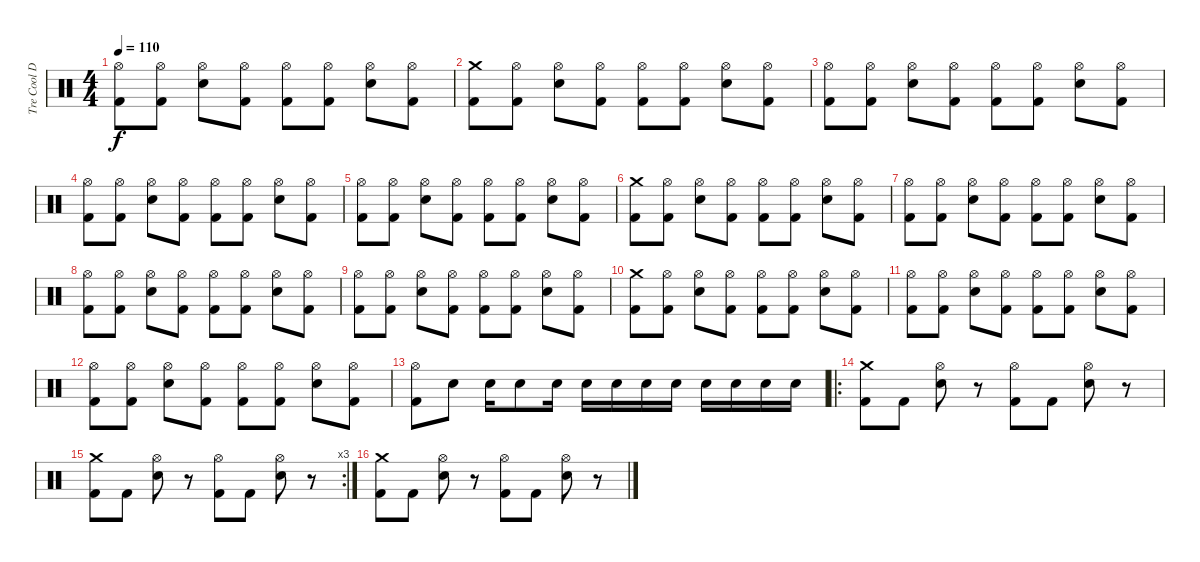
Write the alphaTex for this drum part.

\track ("Tre Cool Drums" "Tre Cool D") {instrument percussion}
\staff {score}
\articulation defaults
\ts (4 4)
\tempo 110
\clef neutral
\ks c
("Hi-Hat (open)" "Kick (hit) 2").8{dy f} ("Hi-Hat (open)" "Kick (hit) 2").8 ("Hi-Hat (open)" "Electric Snare (hit)").8 ("Hi-Hat (open)" "Kick (hit) 2").8 ("Hi-Hat (open)" "Kick (hit) 2").8 ("Hi-Hat (open)" "Kick (hit) 2").8 ("Hi-Hat (open)" "Electric Snare (hit)").8 ("Hi-Hat (open)" "Kick (hit) 2").8 |
("Crash medium (hit)" "Kick (hit) 2").8 ("Hi-Hat (open)" "Kick (hit) 2").8 ("Hi-Hat (open)" "Electric Snare (hit)").8 ("Hi-Hat (open)" "Kick (hit) 2").8 ("Hi-Hat (open)" "Kick (hit) 2").8 ("Hi-Hat (open)" "Kick (hit) 2").8 ("Hi-Hat (open)" "Electric Snare (hit)").8 ("Hi-Hat (open)" "Kick (hit) 2").8 |
("Hi-Hat (open)" "Kick (hit) 2").8 ("Hi-Hat (open)" "Kick (hit) 2").8 ("Hi-Hat (open)" "Electric Snare (hit)").8 ("Hi-Hat (open)" "Kick (hit) 2").8 ("Hi-Hat (open)" "Kick (hit) 2").8 ("Hi-Hat (open)" "Kick (hit) 2").8 ("Hi-Hat (open)" "Electric Snare (hit)").8 ("Hi-Hat (open)" "Kick (hit) 2").8 |
("Hi-Hat (open)" "Kick (hit) 2").8 ("Hi-Hat (open)" "Kick (hit) 2").8 ("Hi-Hat (open)" "Electric Snare (hit)").8 ("Hi-Hat (open)" "Kick (hit) 2").8 ("Hi-Hat (open)" "Kick (hit) 2").8 ("Hi-Hat (open)" "Kick (hit) 2").8 ("Hi-Hat (open)" "Electric Snare (hit)").8 ("Hi-Hat (open)" "Kick (hit) 2").8 |
("Hi-Hat (open)" "Kick (hit) 2").8 ("Hi-Hat (open)" "Kick (hit) 2").8 ("Hi-Hat (open)" "Electric Snare (hit)").8 ("Hi-Hat (open)" "Kick (hit) 2").8 ("Hi-Hat (open)" "Kick (hit) 2").8 ("Hi-Hat (open)" "Kick (hit) 2").8 ("Hi-Hat (open)" "Electric Snare (hit)").8 ("Hi-Hat (open)" "Kick (hit) 2").8 |
("Crash medium (hit)" "Kick (hit) 2").8 ("Hi-Hat (open)" "Kick (hit) 2").8 ("Hi-Hat (open)" "Electric Snare (hit)").8 ("Hi-Hat (open)" "Kick (hit) 2").8 ("Hi-Hat (open)" "Kick (hit) 2").8 ("Hi-Hat (open)" "Kick (hit) 2").8 ("Hi-Hat (open)" "Electric Snare (hit)").8 ("Hi-Hat (open)" "Kick (hit) 2").8 |
("Hi-Hat (open)" "Kick (hit) 2").8 ("Hi-Hat (open)" "Kick (hit) 2").8 ("Hi-Hat (open)" "Electric Snare (hit)").8 ("Hi-Hat (open)" "Kick (hit) 2").8 ("Hi-Hat (open)" "Kick (hit) 2").8 ("Hi-Hat (open)" "Kick (hit) 2").8 ("Hi-Hat (open)" "Electric Snare (hit)").8 ("Hi-Hat (open)" "Kick (hit) 2").8 |
("Hi-Hat (open)" "Kick (hit) 2").8 ("Hi-Hat (open)" "Kick (hit) 2").8 ("Hi-Hat (open)" "Electric Snare (hit)").8 ("Hi-Hat (open)" "Kick (hit) 2").8 ("Hi-Hat (open)" "Kick (hit) 2").8 ("Hi-Hat (open)" "Kick (hit) 2").8 ("Hi-Hat (open)" "Electric Snare (hit)").8 ("Hi-Hat (open)" "Kick (hit) 2").8 |
("Hi-Hat (open)" "Kick (hit) 2").8 ("Hi-Hat (open)" "Kick (hit) 2").8 ("Hi-Hat (open)" "Electric Snare (hit)").8 ("Hi-Hat (open)" "Kick (hit) 2").8 ("Hi-Hat (open)" "Kick (hit) 2").8 ("Hi-Hat (open)" "Kick (hit) 2").8 ("Hi-Hat (open)" "Electric Snare (hit)").8 ("Hi-Hat (open)" "Kick (hit) 2").8 |
("Crash medium (hit)" "Kick (hit) 2").8 ("Hi-Hat (open)" "Kick (hit) 2").8 ("Hi-Hat (open)" "Electric Snare (hit)").8 ("Hi-Hat (open)" "Kick (hit) 2").8 ("Hi-Hat (open)" "Kick (hit) 2").8 ("Hi-Hat (open)" "Kick (hit) 2").8 ("Hi-Hat (open)" "Electric Snare (hit)").8 ("Hi-Hat (open)" "Kick (hit) 2").8 |
("Hi-Hat (open)" "Kick (hit) 2").8 ("Hi-Hat (open)" "Kick (hit) 2").8 ("Hi-Hat (open)" "Electric Snare (hit)").8 ("Hi-Hat (open)" "Kick (hit) 2").8 ("Hi-Hat (open)" "Kick (hit) 2").8 ("Hi-Hat (open)" "Kick (hit) 2").8 ("Hi-Hat (open)" "Electric Snare (hit)").8 ("Hi-Hat (open)" "Kick (hit) 2").8 |
("Hi-Hat (open)" "Kick (hit) 2").8 ("Hi-Hat (open)" "Kick (hit) 2").8 ("Hi-Hat (open)" "Electric Snare (hit)").8 ("Hi-Hat (open)" "Kick (hit) 2").8 ("Hi-Hat (open)" "Kick (hit) 2").8 ("Hi-Hat (open)" "Kick (hit) 2").8 ("Hi-Hat (open)" "Electric Snare (hit)").8 ("Hi-Hat (open)" "Kick (hit) 2").8 |
("Hi-Hat (open)" "Kick (hit) 2").8 "Electric Snare (hit)".8 "Electric Snare (hit)".16 "Electric Snare (hit)".8 "Electric Snare (hit)".16 "Electric Snare (hit)".16 "Electric Snare (hit)".16 "Electric Snare (hit)".16 "Electric Snare (hit)".16 "Electric Snare (hit)".16 "Electric Snare (hit)".16 "Electric Snare (hit)".16 "Electric Snare (hit)".16 |
\ro
("Crash medium (hit)" "Kick (hit) 2").8 "Kick (hit) 2".8 ("Hi-Hat (open)" "Electric Snare (hit)").8 r.8 ("Hi-Hat (open)" "Kick (hit) 2").8 "Kick (hit) 2".8 ("Hi-Hat (open)" "Electric Snare (hit)").8 r.8 |
\rc 3
("Crash medium (hit)" "Kick (hit) 2").8 "Kick (hit) 2".8 ("Hi-Hat (open)" "Electric Snare (hit)").8 r.8 ("Hi-Hat (open)" "Kick (hit) 2").8 "Kick (hit) 2".8 ("Hi-Hat (open)" "Electric Snare (hit)").8 r.8 |
("Crash medium (hit)" "Kick (hit) 2").8 "Kick (hit) 2".8 ("Hi-Hat (open)" "Electric Snare (hit)").8 r.8 ("Hi-Hat (open)" "Kick (hit) 2").8 "Kick (hit) 2".8 ("Hi-Hat (open)" "Electric Snare (hit)").8 r.8
